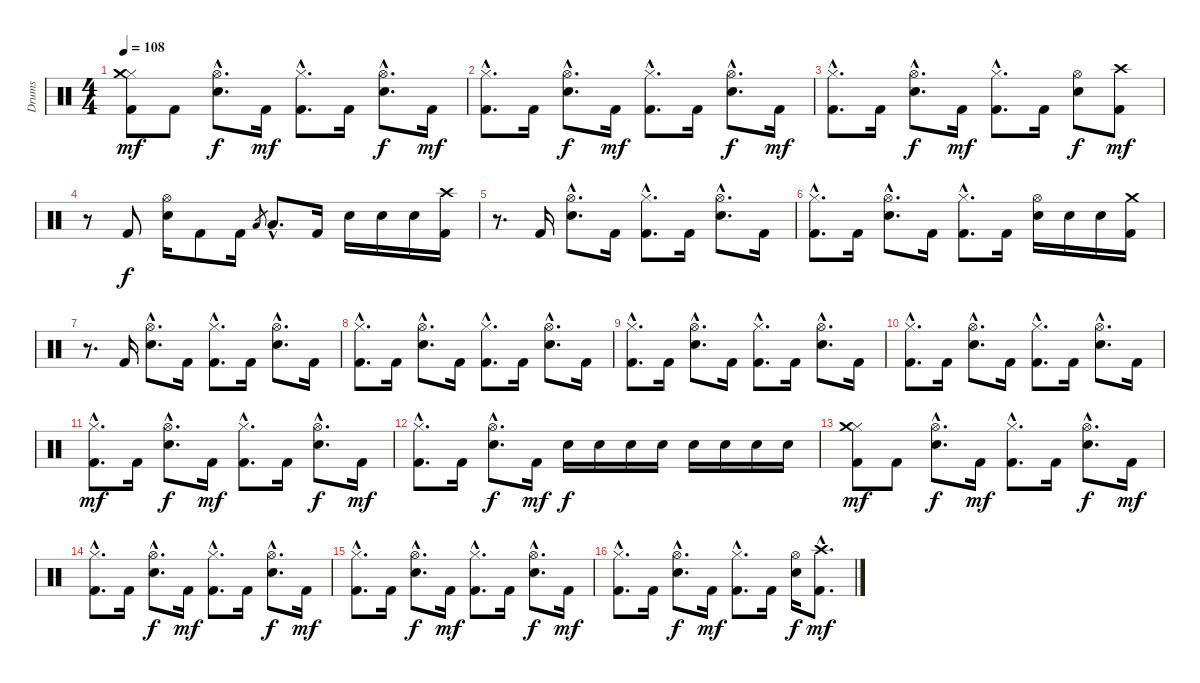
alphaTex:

\track ("Drums" "Drums") {instrument percussion}
\staff {score}
\articulation defaults
\ts (4 4)
\tempo 108
\clef neutral
\ks c
("Kick (hit) 2" "Hi-Hat (closed)" "Crash medium (hit)").8{dy mf} "Kick (hit) 2".8 ("Snare (hit) 2"{hac} "Hi-Hat (open)"{hac}).8{d dy f} "Kick (hit) 2".16{dy mf} ("Kick (hit) 2"{hac} "Hi-Hat (closed)"{hac}).8{d} "Kick (hit) 2".16 ("Snare (hit) 2"{hac} "Hi-Hat (open)"{hac}).8{d dy f} "Kick (hit) 2".16{dy mf} |
("Kick (hit) 2"{hac} "Hi-Hat (closed)"{hac}).8{d} "Kick (hit) 2".16 ("Snare (hit) 2"{hac} "Hi-Hat (open)"{hac}).8{d dy f} "Kick (hit) 2".16{dy mf} ("Kick (hit) 2"{hac} "Hi-Hat (closed)"{hac}).8{d} "Kick (hit) 2".16 ("Snare (hit) 2"{hac} "Hi-Hat (open)"{hac}).8{d dy f} "Kick (hit) 2".16{dy mf} |
("Kick (hit) 2"{hac} "Hi-Hat (closed)"{hac}).8{d} "Kick (hit) 2".16 ("Snare (hit) 2"{hac} "Hi-Hat (open)"{hac}).8{d dy f} "Kick (hit) 2".16{dy mf} ("Kick (hit) 2"{hac} "Hi-Hat (closed)"{hac}).8{d} "Kick (hit) 2".16 ("Snare (hit) 2" "Hi-Hat (open)").8{dy f} ("Kick (hit) 2" "Crash high (hit)").8{dy mf} |
r.8 "Kick (hit) 2".8{dy f} ("Snare (hit) 2" "Hi-Hat (open)").16 "Kick (hit) 2".8 "Kick (hit) 2".16 "Low Floor Tom (hit)".8{gr} "Low Floor Tom (hit)"{hac}.8{d} "Kick (hit) 2".16 "Snare (hit) 2".16 "Snare (hit) 2".16 "Snare (hit) 2".16 ("Kick (hit) 2" "Crash high (hit)").16 |
r.8{d} "Kick (hit) 2".16 ("Snare (hit) 2"{hac} "Hi-Hat (open)"{hac}).8{d} "Kick (hit) 2".16 ("Kick (hit) 2"{hac} "Hi-Hat (closed)"{hac}).8{d} "Kick (hit) 2".16 ("Snare (hit) 2"{hac} "Hi-Hat (open)"{hac}).8{d} "Kick (hit) 2".16 |
("Kick (hit) 2"{hac} "Hi-Hat (closed)"{hac}).8{d} "Kick (hit) 2".16 ("Snare (hit) 2"{hac} "Hi-Hat (open)"{hac}).8{d} "Kick (hit) 2".16 ("Kick (hit) 2"{hac} "Hi-Hat (closed)"{hac}).8{d} "Kick (hit) 2".16 ("Snare (hit) 2" "Hi-Hat (open)").16 "Snare (hit) 2".16 "Snare (hit) 2".16 ("Kick (hit) 2" "Crash medium (hit)").16 |
r.8{d} "Kick (hit) 2".16 ("Snare (hit) 2"{hac} "Hi-Hat (open)"{hac}).8{d} "Kick (hit) 2".16 ("Kick (hit) 2"{hac} "Hi-Hat (closed)"{hac}).8{d} "Kick (hit) 2".16 ("Snare (hit) 2"{hac} "Hi-Hat (open)"{hac}).8{d} "Kick (hit) 2".16 |
("Kick (hit) 2"{hac} "Hi-Hat (closed)"{hac}).8{d} "Kick (hit) 2".16 ("Snare (hit) 2"{hac} "Hi-Hat (open)"{hac}).8{d} "Kick (hit) 2".16 ("Kick (hit) 2"{hac} "Hi-Hat (closed)"{hac}).8{d} "Kick (hit) 2".16 ("Snare (hit) 2"{hac} "Hi-Hat (open)"{hac}).8{d} "Kick (hit) 2".16 |
("Kick (hit) 2"{hac} "Hi-Hat (closed)"{hac}).8{d} "Kick (hit) 2".16 ("Snare (hit) 2"{hac} "Hi-Hat (open)"{hac}).8{d} "Kick (hit) 2".16 ("Kick (hit) 2"{hac} "Hi-Hat (closed)"{hac}).8{d} "Kick (hit) 2".16 ("Snare (hit) 2"{hac} "Hi-Hat (open)"{hac}).8{d} "Kick (hit) 2".16 |
("Kick (hit) 2"{hac} "Hi-Hat (closed)"{hac}).8{d} "Kick (hit) 2".16 ("Snare (hit) 2"{hac} "Hi-Hat (open)"{hac}).8{d} "Kick (hit) 2".16 ("Kick (hit) 2"{hac} "Hi-Hat (closed)"{hac}).8{d} "Kick (hit) 2".16 ("Snare (hit) 2"{hac} "Hi-Hat (open)"{hac}).8{d} "Kick (hit) 2".16 |
("Kick (hit) 2"{hac} "Hi-Hat (closed)"{hac}).8{d dy mf} "Kick (hit) 2".16 ("Snare (hit) 2"{hac} "Hi-Hat (open)"{hac}).8{d dy f} "Kick (hit) 2".16{dy mf} ("Kick (hit) 2"{hac} "Hi-Hat (closed)"{hac}).8{d} "Kick (hit) 2".16 ("Snare (hit) 2"{hac} "Hi-Hat (open)"{hac}).8{d dy f} "Kick (hit) 2".16{dy mf} |
("Kick (hit) 2"{hac} "Hi-Hat (closed)"{hac}).8{d} "Kick (hit) 2".16 ("Snare (hit) 2"{hac} "Hi-Hat (open)"{hac}).8{d dy f} "Kick (hit) 2".16{dy mf} "Snare (hit) 2".16{dy f} "Snare (hit) 2".16 "Snare (hit) 2".16 "Snare (hit) 2".16 "Snare (hit) 2".16 "Snare (hit) 2".16 "Snare (hit) 2".16 "Snare (hit) 2".16 |
("Kick (hit) 2" "Hi-Hat (closed)" "Crash medium (hit)").8{dy mf} "Kick (hit) 2".8 ("Snare (hit) 2"{hac} "Hi-Hat (open)"{hac}).8{d dy f} "Kick (hit) 2".16{dy mf} ("Kick (hit) 2"{hac} "Hi-Hat (closed)"{hac}).8{d} "Kick (hit) 2".16 ("Snare (hit) 2"{hac} "Hi-Hat (open)"{hac}).8{d dy f} "Kick (hit) 2".16{dy mf} |
("Kick (hit) 2"{hac} "Hi-Hat (closed)"{hac}).8{d} "Kick (hit) 2".16 ("Snare (hit) 2"{hac} "Hi-Hat (open)"{hac}).8{d dy f} "Kick (hit) 2".16{dy mf} ("Kick (hit) 2"{hac} "Hi-Hat (closed)"{hac}).8{d} "Kick (hit) 2".16 ("Snare (hit) 2"{hac} "Hi-Hat (open)"{hac}).8{d dy f} "Kick (hit) 2".16{dy mf} |
("Kick (hit) 2"{hac} "Hi-Hat (closed)"{hac}).8{d} "Kick (hit) 2".16 ("Snare (hit) 2"{hac} "Hi-Hat (open)"{hac}).8{d dy f} "Kick (hit) 2".16{dy mf} ("Kick (hit) 2"{hac} "Hi-Hat (closed)"{hac}).8{d} "Kick (hit) 2".16 ("Snare (hit) 2"{hac} "Hi-Hat (open)"{hac}).8{d dy f} "Kick (hit) 2".16{dy mf} |
("Kick (hit) 2"{hac} "Hi-Hat (closed)"{hac}).8{d} "Kick (hit) 2".16 ("Snare (hit) 2"{hac} "Hi-Hat (open)"{hac}).8{d dy f} "Kick (hit) 2".16{dy mf} ("Kick (hit) 2"{hac} "Hi-Hat (closed)"{hac}).8{d} "Kick (hit) 2".16 ("Snare (hit) 2" "Hi-Hat (open)").16{dy f} ("Kick (hit) 2"{hac} "Crash high (hit)"{hac}).8{d dy mf}
